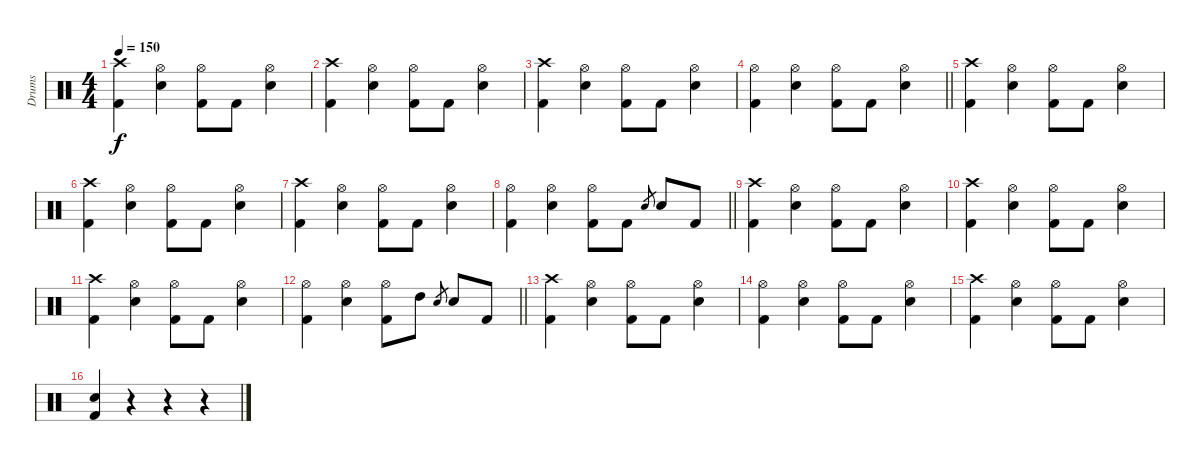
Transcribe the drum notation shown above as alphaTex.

\track ("Drums" "Drums") {instrument percussion}
\staff {score}
\articulation defaults
\ts (4 4)
\tempo 150
\clef neutral
\ks c
("Crash high (hit)" "Kick (hit) 2").4{dy f} ("Hi-Hat (open)" "Electric Snare (hit)").4 ("Hi-Hat (open)" "Kick (hit) 2").8 "Kick (hit) 2".8 ("Hi-Hat (open)" "Electric Snare (hit)").4 |
("Crash high (hit)" "Kick (hit) 2").4 ("Hi-Hat (open)" "Electric Snare (hit)").4 ("Hi-Hat (open)" "Kick (hit) 2").8 "Kick (hit) 2".8 ("Hi-Hat (open)" "Electric Snare (hit)").4 |
("Crash high (hit)" "Kick (hit) 2").4 ("Hi-Hat (open)" "Electric Snare (hit)").4 ("Hi-Hat (open)" "Kick (hit) 2").8 "Kick (hit) 2".8 ("Hi-Hat (open)" "Electric Snare (hit)").4 |
\barLineRight lightlight
("Hi-Hat (open)" "Kick (hit) 2").4 ("Hi-Hat (open)" "Electric Snare (hit)").4 ("Hi-Hat (open)" "Kick (hit) 2").8 "Kick (hit) 2".8 ("Hi-Hat (open)" "Electric Snare (hit)").4 |
("Crash high (hit)" "Kick (hit) 2").4 ("Hi-Hat (open)" "Electric Snare (hit)").4 ("Hi-Hat (open)" "Kick (hit) 2").8 "Kick (hit) 2".8 ("Hi-Hat (open)" "Electric Snare (hit)").4 |
("Crash high (hit)" "Kick (hit) 2").4 ("Hi-Hat (open)" "Electric Snare (hit)").4 ("Hi-Hat (open)" "Kick (hit) 2").8 "Kick (hit) 2".8 ("Hi-Hat (open)" "Electric Snare (hit)").4 |
("Crash high (hit)" "Kick (hit) 2").4 ("Hi-Hat (open)" "Electric Snare (hit)").4 ("Hi-Hat (open)" "Kick (hit) 2").8 "Kick (hit) 2".8 ("Hi-Hat (open)" "Electric Snare (hit)").4 |
\barLineRight lightlight
("Hi-Hat (open)" "Kick (hit) 2").4 ("Hi-Hat (open)" "Electric Snare (hit)").4 ("Hi-Hat (open)" "Kick (hit) 2").8 "Kick (hit) 2".8 "Electric Snare (hit)".8{gr} "Electric Snare (hit)".8 "Kick (hit) 2".8 |
("Crash high (hit)" "Kick (hit) 2").4 ("Hi-Hat (open)" "Electric Snare (hit)").4 ("Hi-Hat (open)" "Kick (hit) 2").8 "Kick (hit) 2".8 ("Hi-Hat (open)" "Electric Snare (hit)").4 |
("Crash high (hit)" "Kick (hit) 2").4 ("Hi-Hat (open)" "Electric Snare (hit)").4 ("Hi-Hat (open)" "Kick (hit) 2").8 "Kick (hit) 2".8 ("Hi-Hat (open)" "Electric Snare (hit)").4 |
("Crash high (hit)" "Kick (hit) 2").4 ("Hi-Hat (open)" "Electric Snare (hit)").4 ("Hi-Hat (open)" "Kick (hit) 2").8 "Kick (hit) 2".8 ("Hi-Hat (open)" "Electric Snare (hit)").4 |
\barLineRight lightlight
("Hi-Hat (open)" "Kick (hit) 2").4 ("Hi-Hat (open)" "Electric Snare (hit)").4 ("Hi-Hat (open)" "Kick (hit) 2").8 "High Tom (hit)".8 "Electric Snare (hit)".8{gr} "Electric Snare (hit)".8 "Kick (hit) 2".8 |
("Crash high (hit)" "Kick (hit) 2").4 ("Hi-Hat (open)" "Electric Snare (hit)").4 ("Hi-Hat (open)" "Kick (hit) 2").8 "Kick (hit) 2".8 ("Hi-Hat (open)" "Electric Snare (hit)").4 |
("Hi-Hat (open)" "Kick (hit) 2").4 ("Hi-Hat (open)" "Electric Snare (hit)").4 ("Hi-Hat (open)" "Kick (hit) 2").8 "Kick (hit) 2".8 ("Hi-Hat (open)" "Electric Snare (hit)").4 |
("Crash high (hit)" "Kick (hit) 2").4 ("Hi-Hat (open)" "Electric Snare (hit)").4 ("Hi-Hat (open)" "Kick (hit) 2").8 "Kick (hit) 2".8 ("Hi-Hat (open)" "Electric Snare (hit)").4 |
("Electric Snare (hit)" "Kick (hit) 2").4 r.4 r.4 r.4
